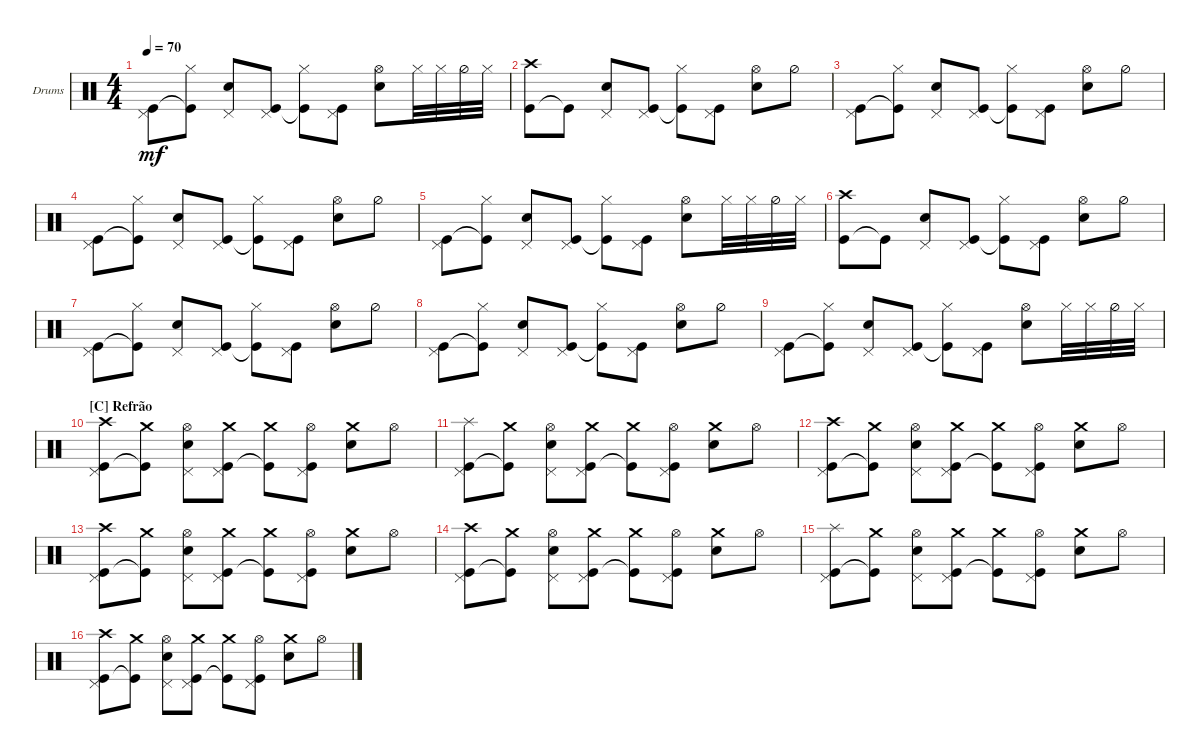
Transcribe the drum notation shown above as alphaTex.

\defaultSystemsLayout 4
\bracketExtendMode groupsimilarinstruments
\firstSystemTrackNameOrientation horizontal
\otherSystemsTrackNameOrientation horizontal
\track ("Drum" "Drums") {multiBarRest instrument percussion}
\staff {score}
\articulation defaults
\ts (4 4)
\tempo 70
\clef neutral
\ks c
("Kick (hit)" "Pedal Hi-Hat (hit)").8{dy mf} ("Kick (hit)"{t} "Hi-Hat (closed)").8 ("Snare (hit) 2" "Pedal Hi-Hat (hit)").8 ("Kick (hit)" "Pedal Hi-Hat (hit)").8 ("Kick (hit)"{t} "Hi-Hat (closed)").8 ("Kick (hit)" "Pedal Hi-Hat (hit)").8 ("Snare (hit) 2" "Hi-Hat (open)").8 "Hi-Hat (closed)".32 "Hi-Hat (closed)".32 "Hi-Hat (half)".32 "Hi-Hat (closed)".32 |
("Kick (hit)" "Crash high (hit)").8 "Kick (hit)"{t}.8 ("Snare (hit) 2" "Pedal Hi-Hat (hit)").8 ("Kick (hit)" "Pedal Hi-Hat (hit)").8 ("Kick (hit)"{t} "Hi-Hat (closed)").8 ("Kick (hit)" "Pedal Hi-Hat (hit)").8 ("Snare (hit) 2" "Hi-Hat (open)").8 "Hi-Hat (half)".8 |
("Kick (hit)" "Pedal Hi-Hat (hit)").8 ("Kick (hit)"{t} "Hi-Hat (closed)").8 ("Snare (hit) 2" "Pedal Hi-Hat (hit)").8 ("Kick (hit)" "Pedal Hi-Hat (hit)").8 ("Kick (hit)"{t} "Hi-Hat (closed)").8 ("Kick (hit)" "Pedal Hi-Hat (hit)").8 ("Snare (hit) 2" "Hi-Hat (open)").8 "Hi-Hat (half)".8 |
("Kick (hit)" "Pedal Hi-Hat (hit)").8 ("Kick (hit)"{t} "Hi-Hat (closed)").8 ("Snare (hit) 2" "Pedal Hi-Hat (hit)").8 ("Kick (hit)" "Pedal Hi-Hat (hit)").8 ("Kick (hit)"{t} "Hi-Hat (closed)").8 ("Kick (hit)" "Pedal Hi-Hat (hit)").8 ("Snare (hit) 2" "Hi-Hat (open)").8 "Hi-Hat (half)".8 |
("Kick (hit)" "Pedal Hi-Hat (hit)").8 ("Kick (hit)"{t} "Hi-Hat (closed)").8 ("Snare (hit) 2" "Pedal Hi-Hat (hit)").8 ("Kick (hit)" "Pedal Hi-Hat (hit)").8 ("Kick (hit)"{t} "Hi-Hat (closed)").8 ("Kick (hit)" "Pedal Hi-Hat (hit)").8 ("Snare (hit) 2" "Hi-Hat (open)").8 "Hi-Hat (closed)".32 "Hi-Hat (closed)".32 "Hi-Hat (half)".32 "Hi-Hat (closed)".32 |
("Kick (hit)" "Crash high (hit)").8 "Kick (hit)"{t}.8 ("Snare (hit) 2" "Pedal Hi-Hat (hit)").8 ("Kick (hit)" "Pedal Hi-Hat (hit)").8 ("Kick (hit)"{t} "Hi-Hat (closed)").8 ("Kick (hit)" "Pedal Hi-Hat (hit)").8 ("Snare (hit) 2" "Hi-Hat (open)").8 "Hi-Hat (half)".8 |
("Kick (hit)" "Pedal Hi-Hat (hit)").8 ("Kick (hit)"{t} "Hi-Hat (closed)").8 ("Snare (hit) 2" "Pedal Hi-Hat (hit)").8 ("Kick (hit)" "Pedal Hi-Hat (hit)").8 ("Kick (hit)"{t} "Hi-Hat (closed)").8 ("Kick (hit)" "Pedal Hi-Hat (hit)").8 ("Snare (hit) 2" "Hi-Hat (open)").8 "Hi-Hat (half)".8 |
("Kick (hit)" "Pedal Hi-Hat (hit)").8 ("Kick (hit)"{t} "Hi-Hat (closed)").8 ("Snare (hit) 2" "Pedal Hi-Hat (hit)").8 ("Kick (hit)" "Pedal Hi-Hat (hit)").8 ("Kick (hit)"{t} "Hi-Hat (closed)").8 ("Kick (hit)" "Pedal Hi-Hat (hit)").8 ("Snare (hit) 2" "Hi-Hat (open)").8 "Hi-Hat (half)".8 |
("Kick (hit)" "Pedal Hi-Hat (hit)").8 ("Kick (hit)"{t} "Hi-Hat (closed)").8 ("Snare (hit) 2" "Pedal Hi-Hat (hit)").8 ("Kick (hit)" "Pedal Hi-Hat (hit)").8 ("Kick (hit)"{t} "Hi-Hat (closed)").8 ("Kick (hit)" "Pedal Hi-Hat (hit)").8 ("Snare (hit) 2" "Hi-Hat (open)").8 "Hi-Hat (closed)".32 "Hi-Hat (closed)".32 "Hi-Hat (half)".32 "Hi-Hat (closed)".32 |
\section ("C" "Refrão")
("Kick (hit)" "Pedal Hi-Hat (hit)" "Crash high (hit)").8 ("Kick (hit)"{t} "Crash medium (hit)").8 ("Snare (hit) 2" "Pedal Hi-Hat (hit)" "Hi-Hat (open)").8 ("Kick (hit)" "Pedal Hi-Hat (hit)" "Crash medium (hit)").8 ("Kick (hit)"{t} "Crash medium (hit)").8 ("Kick (hit)" "Pedal Hi-Hat (hit)" "Hi-Hat (open)").8 ("Snare (hit) 2" "Crash medium (hit)").8 "Hi-Hat (open)".8 |
("Kick (hit)" "Pedal Hi-Hat (hit)" "Splash (hit)").8 ("Kick (hit)"{t} "Crash medium (hit)").8 ("Snare (hit) 2" "Pedal Hi-Hat (hit)" "Hi-Hat (open)").8 ("Kick (hit)" "Pedal Hi-Hat (hit)" "Crash medium (hit)").8 ("Kick (hit)"{t} "Crash medium (hit)").8 ("Kick (hit)" "Pedal Hi-Hat (hit)" "Hi-Hat (open)").8 ("Snare (hit) 2" "Crash medium (hit)").8 "Hi-Hat (open)".8 |
("Kick (hit)" "Pedal Hi-Hat (hit)" "Crash high (hit)").8 ("Kick (hit)"{t} "Crash medium (hit)").8 ("Snare (hit) 2" "Pedal Hi-Hat (hit)" "Hi-Hat (open)").8 ("Kick (hit)" "Pedal Hi-Hat (hit)" "Crash medium (hit)").8 ("Kick (hit)"{t} "Crash medium (hit)").8 ("Kick (hit)" "Pedal Hi-Hat (hit)" "Hi-Hat (open)").8 ("Snare (hit) 2" "Crash medium (hit)").8 "Hi-Hat (open)".8 |
("Kick (hit)" "Pedal Hi-Hat (hit)" "Crash high (hit)").8 ("Kick (hit)"{t} "Crash medium (hit)").8 ("Snare (hit) 2" "Pedal Hi-Hat (hit)" "Hi-Hat (open)").8 ("Kick (hit)" "Pedal Hi-Hat (hit)" "Crash medium (hit)").8 ("Kick (hit)"{t} "Crash medium (hit)").8 ("Kick (hit)" "Pedal Hi-Hat (hit)" "Hi-Hat (open)").8 ("Snare (hit) 2" "Crash medium (hit)").8 "Hi-Hat (open)".8 |
("Kick (hit)" "Pedal Hi-Hat (hit)" "Crash high (hit)").8 ("Kick (hit)"{t} "Crash medium (hit)").8 ("Snare (hit) 2" "Pedal Hi-Hat (hit)" "Hi-Hat (open)").8 ("Kick (hit)" "Pedal Hi-Hat (hit)" "Crash medium (hit)").8 ("Kick (hit)"{t} "Crash medium (hit)").8 ("Kick (hit)" "Pedal Hi-Hat (hit)" "Hi-Hat (open)").8 ("Snare (hit) 2" "Crash medium (hit)").8 "Hi-Hat (open)".8 |
("Kick (hit)" "Pedal Hi-Hat (hit)" "Splash (hit)").8 ("Kick (hit)"{t} "Crash medium (hit)").8 ("Snare (hit) 2" "Pedal Hi-Hat (hit)" "Hi-Hat (open)").8 ("Kick (hit)" "Pedal Hi-Hat (hit)" "Crash medium (hit)").8 ("Kick (hit)"{t} "Crash medium (hit)").8 ("Kick (hit)" "Pedal Hi-Hat (hit)" "Hi-Hat (open)").8 ("Snare (hit) 2" "Crash medium (hit)").8 "Hi-Hat (open)".8 |
("Kick (hit)" "Pedal Hi-Hat (hit)" "Crash high (hit)").8 ("Kick (hit)"{t} "Crash medium (hit)").8 ("Snare (hit) 2" "Pedal Hi-Hat (hit)" "Hi-Hat (open)").8 ("Kick (hit)" "Pedal Hi-Hat (hit)" "Crash medium (hit)").8 ("Kick (hit)"{t} "Crash medium (hit)").8 ("Kick (hit)" "Pedal Hi-Hat (hit)" "Hi-Hat (open)").8 ("Snare (hit) 2" "Crash medium (hit)").8 "Hi-Hat (open)".8
